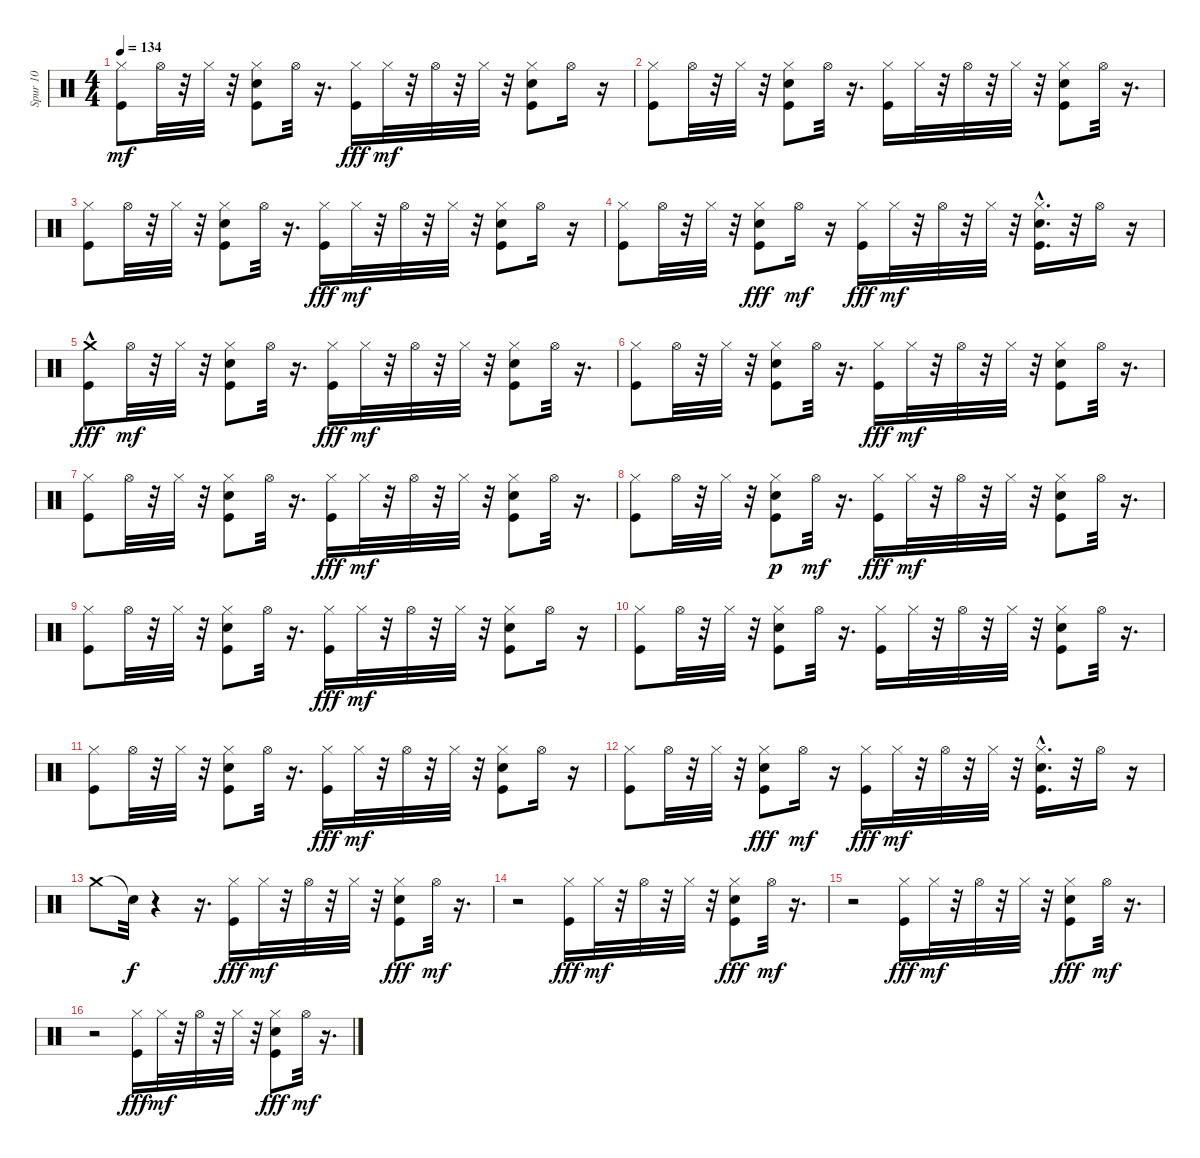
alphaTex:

\track ("Spur 10" "Spur 10") {instrument percussion}
\staff {score}
\articulation defaults
\ts (4 4)
\tempo 134
\clef neutral
\ks c
("Kick (hit)" "Hi-Hat (closed)").8{dy mf} "Hi-Hat (open)".32 r.32 "Hi-Hat (closed)".32 r.32 ("Snare (hit) 2" "Kick (hit)" "Hi-Hat (closed)").8 "Hi-Hat (open)".32 r.16{d} ("Hi-Hat (closed)" "Kick (hit)").16{dy fff} "Hi-Hat (closed)".32{dy mf} r.32 "Hi-Hat (open)".32 r.32 "Hi-Hat (closed)".32 r.32 ("Snare (hit) 2" "Kick (hit)" "Hi-Hat (closed)").8 "Hi-Hat (open)".16 r.16 |
("Kick (hit)" "Hi-Hat (closed)").8 "Hi-Hat (open)".32 r.32 "Hi-Hat (closed)".32 r.32 ("Snare (hit) 2" "Kick (hit)" "Hi-Hat (closed)").8 "Hi-Hat (open)".32 r.16{d} ("Kick (hit)" "Hi-Hat (closed)").16 "Hi-Hat (closed)".32 r.32 "Hi-Hat (open)".32 r.32 "Hi-Hat (closed)".32 r.32 ("Snare (hit) 2" "Kick (hit)" "Hi-Hat (closed)").8 "Hi-Hat (open)".32 r.16{d} |
("Kick (hit)" "Hi-Hat (closed)").8 "Hi-Hat (open)".32 r.32 "Hi-Hat (closed)".32 r.32 ("Snare (hit) 2" "Kick (hit)" "Hi-Hat (closed)").8 "Hi-Hat (open)".32 r.16{d} ("Hi-Hat (closed)" "Kick (hit)").16{dy fff} "Hi-Hat (closed)".32{dy mf} r.32 "Hi-Hat (open)".32 r.32 "Hi-Hat (closed)".32 r.32 ("Snare (hit) 2" "Kick (hit)" "Hi-Hat (closed)").8 "Hi-Hat (open)".16 r.16 |
("Kick (hit)" "Hi-Hat (closed)").8 "Hi-Hat (open)".32 r.32 "Hi-Hat (closed)".32 r.32 ("Hi-Hat (closed)" "Snare (hit) 2" "Kick (hit)").8{dy fff} "Hi-Hat (open)".16{dy mf} r.16 ("Hi-Hat (closed)" "Kick (hit)").16{dy fff} "Hi-Hat (closed)".32{dy mf} r.32 "Hi-Hat (open)".32 r.32 "Hi-Hat (closed)".32 r.32 ("Snare (hit) 2" "Kick (hit)"{hac} "Hi-Hat (closed)").16{d} r.32 "Hi-Hat (open)".16 r.16 |
("Crash medium (hit)"{hac} "Kick (hit)").8{dy fff} "Hi-Hat (open)".32{dy mf} r.32 "Hi-Hat (closed)".32 r.32 ("Snare (hit) 2" "Kick (hit)" "Hi-Hat (closed)").8 "Hi-Hat (open)".32 r.16{d} ("Hi-Hat (closed)" "Kick (hit)").16{dy fff} "Hi-Hat (closed)".32{dy mf} r.32 "Hi-Hat (open)".32 r.32 "Hi-Hat (closed)".32 r.32 ("Snare (hit) 2" "Kick (hit)" "Hi-Hat (closed)").8 "Hi-Hat (open)".32 r.16{d} |
("Kick (hit)" "Hi-Hat (closed)").8 "Hi-Hat (open)".32 r.32 "Hi-Hat (closed)".32 r.32 ("Snare (hit) 2" "Kick (hit)" "Hi-Hat (closed)").8 "Hi-Hat (open)".32 r.16{d} ("Hi-Hat (closed)" "Kick (hit)").16{dy fff} "Hi-Hat (closed)".32{dy mf} r.32 "Hi-Hat (open)".32 r.32 "Hi-Hat (closed)".32 r.32 ("Kick (hit)" "Snare (hit) 2" "Hi-Hat (closed)").8 "Hi-Hat (open)".32 r.16{d} |
("Kick (hit)" "Hi-Hat (closed)").8 "Hi-Hat (open)".32 r.32 "Hi-Hat (closed)".32 r.32 ("Kick (hit)" "Snare (hit) 2" "Hi-Hat (closed)").8 "Hi-Hat (open)".32 r.16{d} ("Hi-Hat (closed)" "Kick (hit)").16{dy fff} "Hi-Hat (closed)".32{dy mf} r.32 "Hi-Hat (open)".32 r.32 "Hi-Hat (closed)".32 r.32 ("Snare (hit) 2" "Kick (hit)" "Hi-Hat (closed)").8 "Hi-Hat (open)".32 r.16{d} |
("Kick (hit)" "Hi-Hat (closed)").8 "Hi-Hat (open)".32 r.32 "Hi-Hat (closed)".32 r.32 ("Hi-Hat (closed)" "Kick (hit)" "Snare (hit) 2").8{dy p} "Hi-Hat (open)".32{dy mf} r.16{d} ("Hi-Hat (closed)" "Kick (hit)").16{dy fff} "Hi-Hat (closed)".32{dy mf} r.32 "Hi-Hat (open)".32 r.32 "Hi-Hat (closed)".32 r.32 ("Kick (hit)" "Snare (hit) 2" "Hi-Hat (closed)").8 "Hi-Hat (open)".32 r.16{d} |
("Kick (hit)" "Hi-Hat (closed)").8 "Hi-Hat (open)".32 r.32 "Hi-Hat (closed)".32 r.32 ("Snare (hit) 2" "Kick (hit)" "Hi-Hat (closed)").8 "Hi-Hat (open)".32 r.16{d} ("Hi-Hat (closed)" "Kick (hit)").16{dy fff} "Hi-Hat (closed)".32{dy mf} r.32 "Hi-Hat (open)".32 r.32 "Hi-Hat (closed)".32 r.32 ("Snare (hit) 2" "Kick (hit)" "Hi-Hat (closed)").8 "Hi-Hat (open)".16 r.16 |
("Kick (hit)" "Hi-Hat (closed)").8 "Hi-Hat (open)".32 r.32 "Hi-Hat (closed)".32 r.32 ("Snare (hit) 2" "Kick (hit)" "Hi-Hat (closed)").8 "Hi-Hat (open)".32 r.16{d} ("Kick (hit)" "Hi-Hat (closed)").16 "Hi-Hat (closed)".32 r.32 "Hi-Hat (open)".32 r.32 "Hi-Hat (closed)".32 r.32 ("Snare (hit) 2" "Kick (hit)" "Hi-Hat (closed)").8 "Hi-Hat (open)".32 r.16{d} |
("Kick (hit)" "Hi-Hat (closed)").8 "Hi-Hat (open)".32 r.32 "Hi-Hat (closed)".32 r.32 ("Snare (hit) 2" "Kick (hit)" "Hi-Hat (closed)").8 "Hi-Hat (open)".32 r.16{d} ("Hi-Hat (closed)" "Kick (hit)").16{dy fff} "Hi-Hat (closed)".32{dy mf} r.32 "Hi-Hat (open)".32 r.32 "Hi-Hat (closed)".32 r.32 ("Snare (hit) 2" "Kick (hit)" "Hi-Hat (closed)").8 "Hi-Hat (open)".16 r.16 |
("Kick (hit)" "Hi-Hat (closed)").8 "Hi-Hat (open)".32 r.32 "Hi-Hat (closed)".32 r.32 ("Hi-Hat (closed)" "Snare (hit) 2" "Kick (hit)").8{dy fff} "Hi-Hat (open)".16{dy mf} r.16 ("Hi-Hat (closed)" "Kick (hit)").16{dy fff} "Hi-Hat (closed)".32{dy mf} r.32 "Hi-Hat (open)".32 r.32 "Hi-Hat (closed)".32 r.32 ("Snare (hit) 2" "Kick (hit)"{hac} "Hi-Hat (closed)").16{d} r.32 "Hi-Hat (open)".16 r.16 |
"Crash medium (hit)".8 "Snare (hit)"{t}.32{dy f} r.4 r.16{d} ("Hi-Hat (closed)" "Kick (hit)").16{dy fff} "Hi-Hat (closed)".32{dy mf} r.32 "Hi-Hat (open)".32 r.32 "Hi-Hat (closed)".32 r.32 ("Snare (hit) 2" "Hi-Hat (closed)" "Kick (hit)").8{dy fff} "Hi-Hat (open)".32{dy mf} r.16{d} |
r.2 ("Hi-Hat (closed)" "Kick (hit)").16{dy fff} "Hi-Hat (closed)".32{dy mf} r.32 "Hi-Hat (open)".32 r.32 "Hi-Hat (closed)".32 r.32 ("Snare (hit) 2" "Hi-Hat (closed)" "Kick (hit)").8{dy fff} "Hi-Hat (open)".32{dy mf} r.16{d} |
r.2 ("Hi-Hat (closed)" "Kick (hit)").16{dy fff} "Hi-Hat (closed)".32{dy mf} r.32 "Hi-Hat (open)".32 r.32 "Hi-Hat (closed)".32 r.32 ("Snare (hit) 2" "Hi-Hat (closed)" "Kick (hit)").8{dy fff} "Hi-Hat (open)".32{dy mf} r.16{d} |
r.2 ("Hi-Hat (closed)" "Kick (hit)").16{dy fff} "Hi-Hat (closed)".32{dy mf} r.32 "Hi-Hat (open)".32 r.32 "Hi-Hat (closed)".32 r.32 ("Snare (hit) 2" "Hi-Hat (closed)" "Kick (hit)").8{dy fff} "Hi-Hat (open)".32{dy mf} r.16{d}
